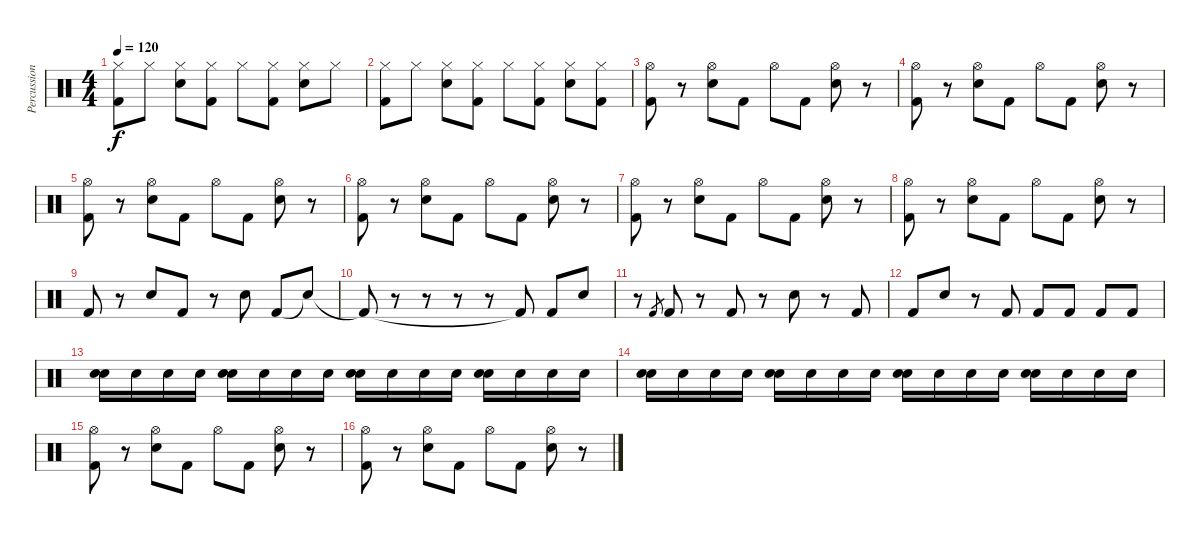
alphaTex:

\track ("Percussion" "Percussion") {instrument percussion}
\staff {score}
\articulation defaults
\ts (4 4)
\tempo 120
\clef neutral
\ks c
("Hi-Hat (closed)" "Kick (hit) 2").8{dy f} "Hi-Hat (closed)".8 ("Hi-Hat (closed)" "Snare (hit) 2").8 ("Hi-Hat (closed)" "Kick (hit) 2").8 "Hi-Hat (closed)".8 ("Hi-Hat (closed)" "Kick (hit) 2").8 ("Hi-Hat (closed)" "Snare (hit) 2").8 "Hi-Hat (closed)".8 |
("Hi-Hat (closed)" "Kick (hit) 2").8 "Hi-Hat (closed)".8 ("Hi-Hat (closed)" "Snare (hit) 2").8 ("Hi-Hat (closed)" "Kick (hit) 2").8 "Hi-Hat (closed)".8 ("Hi-Hat (closed)" "Kick (hit) 2").8 ("Hi-Hat (closed)" "Snare (hit) 2").8 ("Hi-Hat (closed)" "Kick (hit) 2").8 |
("Hi-Hat (open)" "Kick (hit) 2").8 r.8 ("Hi-Hat (open)" "Snare (hit) 2").8 "Kick (hit) 2".8 "Hi-Hat (open)".8 "Kick (hit) 2".8 ("Hi-Hat (open)" "Snare (hit) 2").8 r.8 |
("Hi-Hat (open)" "Kick (hit) 2").8 r.8 ("Hi-Hat (open)" "Snare (hit) 2").8 "Kick (hit) 2".8 "Hi-Hat (open)".8 "Kick (hit) 2".8 ("Hi-Hat (open)" "Snare (hit) 2").8 r.8 |
("Hi-Hat (open)" "Kick (hit) 2").8 r.8 ("Hi-Hat (open)" "Snare (hit) 2").8 "Kick (hit) 2".8 "Hi-Hat (open)".8 "Kick (hit) 2".8 ("Hi-Hat (open)" "Snare (hit) 2").8 r.8 |
("Hi-Hat (open)" "Kick (hit) 2").8 r.8 ("Hi-Hat (open)" "Snare (hit) 2").8 "Kick (hit) 2".8 "Hi-Hat (open)".8 "Kick (hit) 2".8 ("Hi-Hat (open)" "Snare (hit) 2").8 r.8 |
("Hi-Hat (open)" "Kick (hit) 2").8 r.8 ("Hi-Hat (open)" "Snare (hit) 2").8 "Kick (hit) 2".8 "Hi-Hat (open)".8 "Kick (hit) 2".8 ("Hi-Hat (open)" "Snare (hit) 2").8 r.8 |
("Hi-Hat (open)" "Kick (hit) 2").8 r.8 ("Hi-Hat (open)" "Snare (hit) 2").8 "Kick (hit) 2".8 "Hi-Hat (open)".8 "Kick (hit) 2".8 ("Hi-Hat (open)" "Snare (hit) 2").8 r.8 |
"Kick (hit) 2".8 r.8 "Snare (hit) 2".8 "Kick (hit) 2".8 r.8 "Snare (hit) 2".8 "Kick (hit) 2".8 "Snare (hit)"{t}.8 |
"Kick (hit) 2"{t}.8 r.8 r.8 r.8 r.8 "Kick (hit) 2"{t}.8 "Kick (hit) 2".8 "Snare (hit) 2".8 |
r.8 "Kick (hit) 2".8{gr} "Kick (hit) 2".8 r.8 "Kick (hit) 2".8 r.8 "Snare (hit) 2".8 r.8 "Kick (hit) 2".8 |
"Kick (hit) 2".8 "Snare (hit) 2".8 r.8 "Kick (hit) 2".8 "Kick (hit) 2".8 "Kick (hit) 2".8 "Kick (hit) 2".8 "Kick (hit) 2".8 |
("Snare (hit) 2" "Snare (hit) 2").16 "Snare (hit) 2".16 "Snare (hit) 2".16 "Snare (hit) 2".16 ("Snare (hit) 2" "Snare (hit) 2").16 "Snare (hit) 2".16 "Snare (hit) 2".16 "Snare (hit) 2".16 ("Snare (hit) 2" "Snare (hit) 2").16 "Snare (hit) 2".16 "Snare (hit) 2".16 "Snare (hit) 2".16 ("Snare (hit) 2" "Snare (hit) 2").16 "Snare (hit) 2".16 "Snare (hit) 2".16 "Snare (hit) 2".16 |
("Snare (hit) 2" "Snare (hit) 2").16 "Snare (hit) 2".16 "Snare (hit) 2".16 "Snare (hit) 2".16 ("Snare (hit) 2" "Snare (hit) 2").16 "Snare (hit) 2".16 "Snare (hit) 2".16 "Snare (hit) 2".16 ("Snare (hit) 2" "Snare (hit) 2").16 "Snare (hit) 2".16 "Snare (hit) 2".16 "Snare (hit) 2".16 ("Snare (hit) 2" "Snare (hit) 2").16 "Snare (hit) 2".16 "Snare (hit) 2".16 "Snare (hit) 2".16 |
("Hi-Hat (open)" "Kick (hit) 2").8 r.8 ("Hi-Hat (open)" "Snare (hit) 2").8 "Kick (hit) 2".8 "Hi-Hat (open)".8 "Kick (hit) 2".8 ("Hi-Hat (open)" "Snare (hit) 2").8 r.8 |
("Hi-Hat (open)" "Kick (hit) 2").8 r.8 ("Hi-Hat (open)" "Snare (hit) 2").8 "Kick (hit) 2".8 "Hi-Hat (open)".8 "Kick (hit) 2".8 ("Hi-Hat (open)" "Snare (hit) 2").8 r.8
